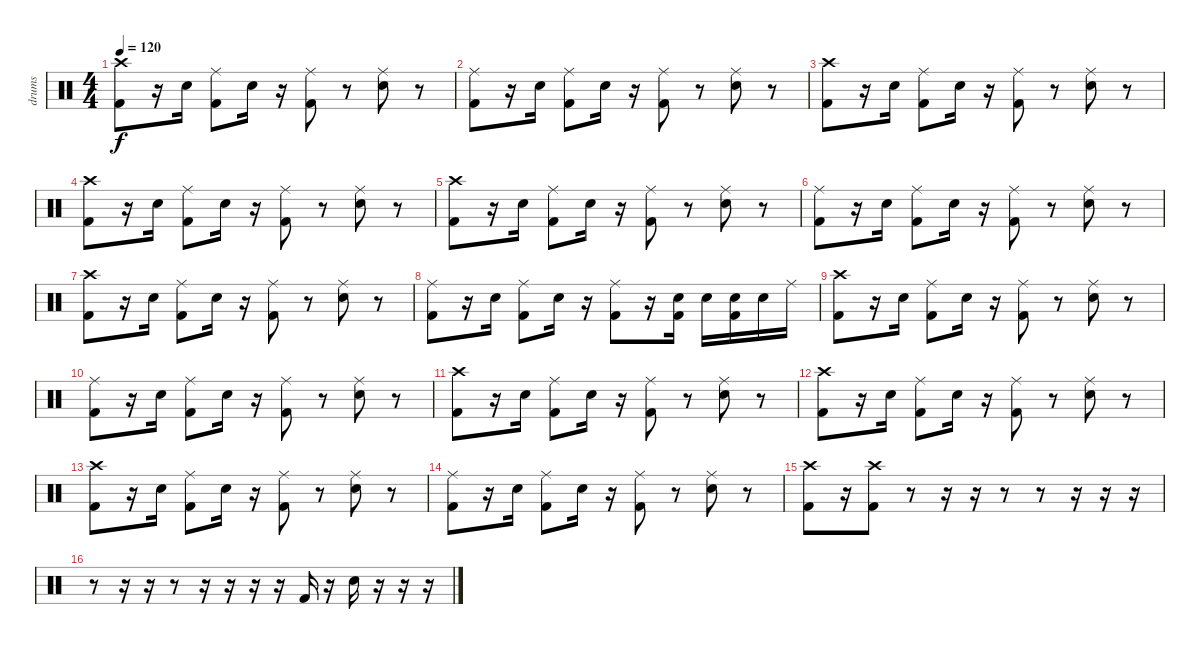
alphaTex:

\track ("drums" "drums") {instrument percussion}
\staff {score}
\articulation defaults
\ts (4 4)
\tempo 120
\clef neutral
\ks c
("Crash high (hit)" "Kick (hit) 2").8{dy f} r.16 "Snare (hit) 2".16 ("Ride (middle)" "Kick (hit) 2").8 "Snare (hit) 2".16 r.16 ("Ride (middle)" "Kick (hit) 2").8 r.8 ("Ride (middle)" "Snare (hit) 2").8 r.8 |
("Ride (middle)" "Kick (hit) 2").8 r.16 "Snare (hit) 2".16 ("Ride (middle)" "Kick (hit) 2").8 "Snare (hit) 2".16 r.16 ("Ride (middle)" "Kick (hit) 2").8 r.8 ("Ride (middle)" "Snare (hit) 2").8 r.8 |
("Crash high (hit)" "Kick (hit) 2").8 r.16 "Snare (hit) 2".16 ("Ride (middle)" "Kick (hit) 2").8 "Snare (hit) 2".16 r.16 ("Ride (middle)" "Kick (hit) 2").8 r.8 ("Ride (middle)" "Snare (hit) 2").8 r.8 |
("Crash high (hit)" "Kick (hit) 2").8 r.16 "Snare (hit) 2".16 ("Ride (middle)" "Kick (hit) 2").8 "Snare (hit) 2".16 r.16 ("Ride (middle)" "Kick (hit) 2").8 r.8 ("Ride (middle)" "Snare (hit) 2").8 r.8 |
("Crash high (hit)" "Kick (hit) 2").8 r.16 "Snare (hit) 2".16 ("Ride (middle)" "Kick (hit) 2").8 "Snare (hit) 2".16 r.16 ("Ride (middle)" "Kick (hit) 2").8 r.8 ("Ride (middle)" "Snare (hit) 2").8 r.8 |
("Ride (middle)" "Kick (hit) 2").8 r.16 "Snare (hit) 2".16 ("Ride (middle)" "Kick (hit) 2").8 "Snare (hit) 2".16 r.16 ("Ride (middle)" "Kick (hit) 2").8 r.8 ("Ride (middle)" "Snare (hit) 2").8 r.8 |
("Crash high (hit)" "Kick (hit) 2").8 r.16 "Snare (hit) 2".16 ("Ride (middle)" "Kick (hit) 2").8 "Snare (hit) 2".16 r.16 ("Ride (middle)" "Kick (hit) 2").8 r.8 ("Ride (middle)" "Snare (hit) 2").8 r.8 |
("Ride (middle)" "Kick (hit) 2").8 r.16 "Snare (hit) 2".16 ("Ride (middle)" "Kick (hit) 2").8 "Snare (hit) 2".16 r.16 ("Ride (middle)" "Kick (hit) 2").8 r.16 ("Snare (hit) 2" "Kick (hit) 2").16 "Snare (hit) 2".16 ("Snare (hit) 2" "Kick (hit) 2").16 "Snare (hit) 2".16 "Ride (middle)".16 |
("Crash high (hit)" "Kick (hit) 2").8 r.16 "Snare (hit) 2".16 ("Ride (middle)" "Kick (hit) 2").8 "Snare (hit) 2".16 r.16 ("Ride (middle)" "Kick (hit) 2").8 r.8 ("Ride (middle)" "Snare (hit) 2").8 r.8 |
("Ride (middle)" "Kick (hit) 2").8 r.16 "Snare (hit) 2".16 ("Ride (middle)" "Kick (hit) 2").8 "Snare (hit) 2".16 r.16 ("Ride (middle)" "Kick (hit) 2").8 r.8 ("Ride (middle)" "Snare (hit) 2").8 r.8 |
("Crash high (hit)" "Kick (hit) 2").8 r.16 "Snare (hit) 2".16 ("Ride (middle)" "Kick (hit) 2").8 "Snare (hit) 2".16 r.16 ("Ride (middle)" "Kick (hit) 2").8 r.8 ("Ride (middle)" "Snare (hit) 2").8 r.8 |
("Crash high (hit)" "Kick (hit) 2").8 r.16 "Snare (hit) 2".16 ("Ride (middle)" "Kick (hit) 2").8 "Snare (hit) 2".16 r.16 ("Ride (middle)" "Kick (hit) 2").8 r.8 ("Ride (middle)" "Snare (hit) 2").8 r.8 |
("Crash high (hit)" "Kick (hit) 2").8 r.16 "Snare (hit) 2".16 ("Ride (middle)" "Kick (hit) 2").8 "Snare (hit) 2".16 r.16 ("Ride (middle)" "Kick (hit) 2").8 r.8 ("Ride (middle)" "Snare (hit) 2").8 r.8 |
("Ride (middle)" "Kick (hit) 2").8 r.16 "Snare (hit) 2".16 ("Ride (middle)" "Kick (hit) 2").8 "Snare (hit) 2".16 r.16 ("Ride (middle)" "Kick (hit) 2").8 r.8 ("Ride (middle)" "Snare (hit) 2").8 r.8 |
("Crash high (hit)" "Kick (hit) 2").8 r.16 ("Crash high (hit)" "Kick (hit) 2").8 r.8 r.16 r.16 r.8 r.8 r.16 r.16 r.16 |
r.8 r.16 r.16 r.8 r.16 r.16 r.16 r.16 "Kick (hit) 2".16 r.16 "Electric Snare (hit)".16 r.16 r.16 r.16
